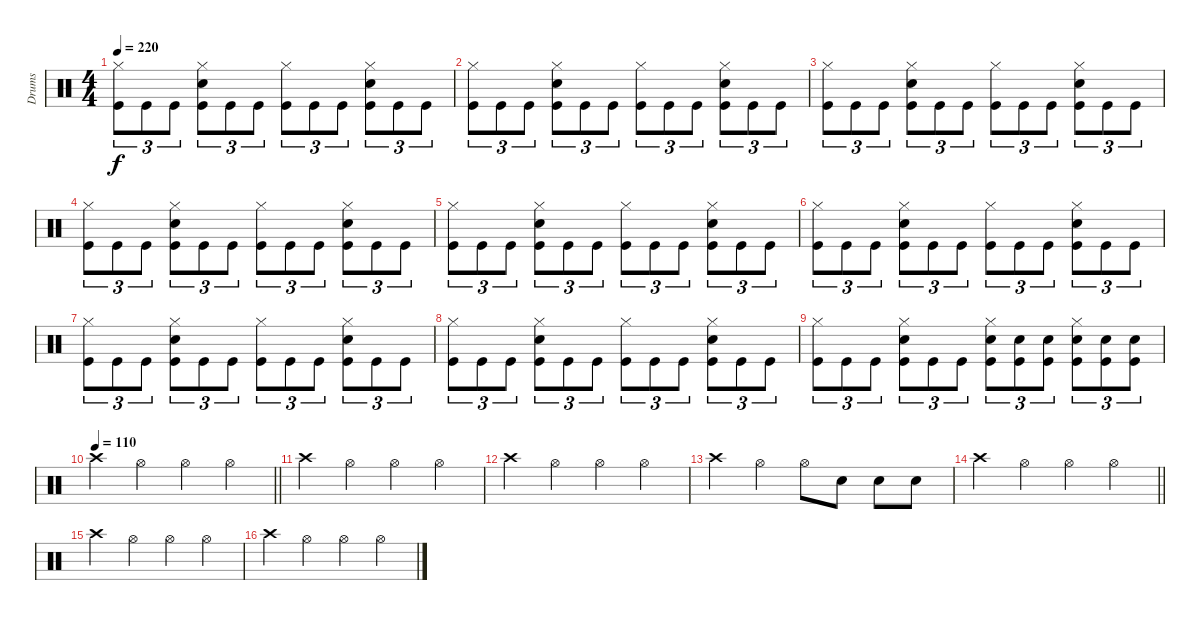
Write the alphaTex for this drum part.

\track ("Drums" "Drums") {instrument percussion}
\staff {score}
\articulation defaults
\ts (4 4)
\tempo 220
\clef neutral
\ks c
("Hi-Hat (closed)" "Kick (hit)").8{tu (3 2) dy f} "Kick (hit)".8{tu (3 2)} "Kick (hit)".8{tu (3 2)} ("Electric Snare (hit)" "Hi-Hat (closed)" "Kick (hit)").8{tu (3 2)} "Kick (hit)".8{tu (3 2)} "Kick (hit)".8{tu (3 2)} ("Hi-Hat (closed)" "Kick (hit)").8{tu (3 2)} "Kick (hit)".8{tu (3 2)} "Kick (hit)".8{tu (3 2)} ("Electric Snare (hit)" "Hi-Hat (closed)" "Kick (hit)").8{tu (3 2)} "Kick (hit)".8{tu (3 2)} "Kick (hit)".8{tu (3 2)} |
("Hi-Hat (closed)" "Kick (hit)").8{tu (3 2)} "Kick (hit)".8{tu (3 2)} "Kick (hit)".8{tu (3 2)} ("Electric Snare (hit)" "Hi-Hat (closed)" "Kick (hit)").8{tu (3 2)} "Kick (hit)".8{tu (3 2)} "Kick (hit)".8{tu (3 2)} ("Hi-Hat (closed)" "Kick (hit)").8{tu (3 2)} "Kick (hit)".8{tu (3 2)} "Kick (hit)".8{tu (3 2)} ("Electric Snare (hit)" "Hi-Hat (closed)" "Kick (hit)").8{tu (3 2)} "Kick (hit)".8{tu (3 2)} "Kick (hit)".8{tu (3 2)} |
("Hi-Hat (closed)" "Kick (hit)").8{tu (3 2)} "Kick (hit)".8{tu (3 2)} "Kick (hit)".8{tu (3 2)} ("Electric Snare (hit)" "Hi-Hat (closed)" "Kick (hit)").8{tu (3 2)} "Kick (hit)".8{tu (3 2)} "Kick (hit)".8{tu (3 2)} ("Hi-Hat (closed)" "Kick (hit)").8{tu (3 2)} "Kick (hit)".8{tu (3 2)} "Kick (hit)".8{tu (3 2)} ("Electric Snare (hit)" "Hi-Hat (closed)" "Kick (hit)").8{tu (3 2)} "Kick (hit)".8{tu (3 2)} "Kick (hit)".8{tu (3 2)} |
("Hi-Hat (closed)" "Kick (hit)").8{tu (3 2)} "Kick (hit)".8{tu (3 2)} "Kick (hit)".8{tu (3 2)} ("Electric Snare (hit)" "Hi-Hat (closed)" "Kick (hit)").8{tu (3 2)} "Kick (hit)".8{tu (3 2)} "Kick (hit)".8{tu (3 2)} ("Hi-Hat (closed)" "Kick (hit)").8{tu (3 2)} "Kick (hit)".8{tu (3 2)} "Kick (hit)".8{tu (3 2)} ("Electric Snare (hit)" "Hi-Hat (closed)" "Kick (hit)").8{tu (3 2)} "Kick (hit)".8{tu (3 2)} "Kick (hit)".8{tu (3 2)} |
("Hi-Hat (closed)" "Kick (hit)").8{tu (3 2)} "Kick (hit)".8{tu (3 2)} "Kick (hit)".8{tu (3 2)} ("Electric Snare (hit)" "Hi-Hat (closed)" "Kick (hit)").8{tu (3 2)} "Kick (hit)".8{tu (3 2)} "Kick (hit)".8{tu (3 2)} ("Hi-Hat (closed)" "Kick (hit)").8{tu (3 2)} "Kick (hit)".8{tu (3 2)} "Kick (hit)".8{tu (3 2)} ("Electric Snare (hit)" "Hi-Hat (closed)" "Kick (hit)").8{tu (3 2)} "Kick (hit)".8{tu (3 2)} "Kick (hit)".8{tu (3 2)} |
("Hi-Hat (closed)" "Kick (hit)").8{tu (3 2)} "Kick (hit)".8{tu (3 2)} "Kick (hit)".8{tu (3 2)} ("Electric Snare (hit)" "Hi-Hat (closed)" "Kick (hit)").8{tu (3 2)} "Kick (hit)".8{tu (3 2)} "Kick (hit)".8{tu (3 2)} ("Hi-Hat (closed)" "Kick (hit)").8{tu (3 2)} "Kick (hit)".8{tu (3 2)} "Kick (hit)".8{tu (3 2)} ("Electric Snare (hit)" "Hi-Hat (closed)" "Kick (hit)").8{tu (3 2)} "Kick (hit)".8{tu (3 2)} "Kick (hit)".8{tu (3 2)} |
("Hi-Hat (closed)" "Kick (hit)").8{tu (3 2)} "Kick (hit)".8{tu (3 2)} "Kick (hit)".8{tu (3 2)} ("Electric Snare (hit)" "Hi-Hat (closed)" "Kick (hit)").8{tu (3 2)} "Kick (hit)".8{tu (3 2)} "Kick (hit)".8{tu (3 2)} ("Hi-Hat (closed)" "Kick (hit)").8{tu (3 2)} "Kick (hit)".8{tu (3 2)} "Kick (hit)".8{tu (3 2)} ("Electric Snare (hit)" "Hi-Hat (closed)" "Kick (hit)").8{tu (3 2)} "Kick (hit)".8{tu (3 2)} "Kick (hit)".8{tu (3 2)} |
("Hi-Hat (closed)" "Kick (hit)").8{tu (3 2)} "Kick (hit)".8{tu (3 2)} "Kick (hit)".8{tu (3 2)} ("Electric Snare (hit)" "Hi-Hat (closed)" "Kick (hit)").8{tu (3 2)} "Kick (hit)".8{tu (3 2)} "Kick (hit)".8{tu (3 2)} ("Hi-Hat (closed)" "Kick (hit)").8{tu (3 2)} "Kick (hit)".8{tu (3 2)} "Kick (hit)".8{tu (3 2)} ("Electric Snare (hit)" "Hi-Hat (closed)" "Kick (hit)").8{tu (3 2)} "Kick (hit)".8{tu (3 2)} "Kick (hit)".8{tu (3 2)} |
("Hi-Hat (closed)" "Kick (hit)").8{tu (3 2)} "Kick (hit)".8{tu (3 2)} "Kick (hit)".8{tu (3 2)} ("Electric Snare (hit)" "Hi-Hat (closed)" "Kick (hit)").8{tu (3 2)} "Kick (hit)".8{tu (3 2)} "Kick (hit)".8{tu (3 2)} ("Electric Snare (hit)" "Hi-Hat (closed)" "Kick (hit)").8{tu (3 2)} ("Electric Snare (hit)" "Kick (hit)").8{tu (3 2)} ("Electric Snare (hit)" "Kick (hit)").8{tu (3 2)} ("Electric Snare (hit)" "Hi-Hat (closed)" "Kick (hit)").8{tu (3 2)} ("Electric Snare (hit)" "Kick (hit)").8{tu (3 2)} ("Electric Snare (hit)" "Kick (hit)").8{tu (3 2)} |
\tempo 110
\barLineRight lightlight "Crash high (hit)".4 "Hi-Hat (open)".4 "Hi-Hat (open)".4 "Hi-Hat (open)".4
|
"Crash high (hit)".4 "Hi-Hat (open)".4 "Hi-Hat (open)".4 "Hi-Hat (open)".4 |
"Crash high (hit)".4 "Hi-Hat (open)".4 "Hi-Hat (open)".4 "Hi-Hat (open)".4 |
"Crash high (hit)".4 "Hi-Hat (open)".4 "Hi-Hat (open)".8 "Electric Snare (hit)".8 "Electric Snare (hit)".8 "Electric Snare (hit)".8 |
\barLineRight lightlight "Crash high (hit)".4 "Hi-Hat (open)".4 "Hi-Hat (open)".4 "Hi-Hat (open)".4
|
"Crash high (hit)".4 "Hi-Hat (open)".4 "Hi-Hat (open)".4 "Hi-Hat (open)".4 |
"Crash high (hit)".4 "Hi-Hat (open)".4 "Hi-Hat (open)".4 "Hi-Hat (open)".4
